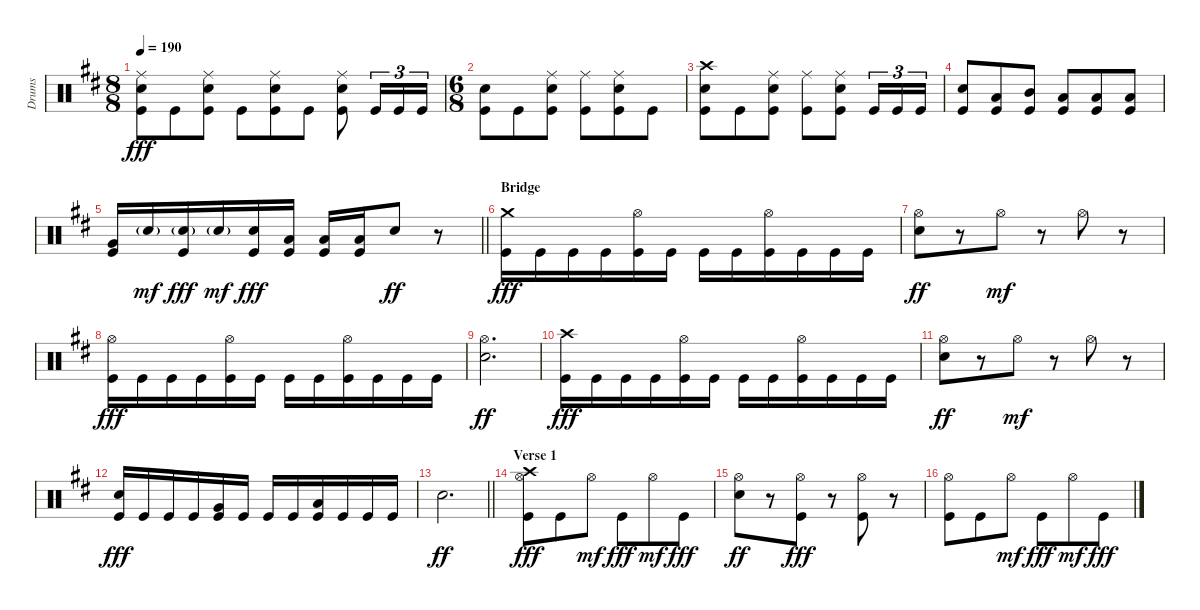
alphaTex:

\track ("Drums" "Drums") {instrument percussion}
\staff {score}
\articulation defaults
\ts (8 8)
\tempo 190
\clef neutral
\ks bminor
("Ride (middle)" "Snare (hit) 2" "Kick (hit)").8{dy fff} "Kick (hit)".8 ("Ride (middle)" "Snare (hit) 2" "Kick (hit)").8 "Kick (hit)".8 ("Ride (middle)" "Snare (hit) 2" "Kick (hit)").8 "Kick (hit)".8 ("Ride (middle)" "Snare (hit) 2" "Kick (hit)").8 "Kick (hit)".16{tu (3 2)} "Kick (hit)".16{tu (3 2)} "Kick (hit)".16{tu (3 2)} |
\ts (6 8)
("Snare (hit) 2" "Kick (hit)").8 "Kick (hit)".8 ("Ride (middle)" "Snare (hit) 2" "Kick (hit)").8 ("Ride (middle)" "Kick (hit)").8 ("Ride (middle)" "Snare (hit) 2" "Kick (hit)").8 "Kick (hit)".8 |
("Crash high (hit)" "Snare (hit) 2" "Kick (hit)").8 "Kick (hit)".8 ("Ride (middle)" "Snare (hit) 2" "Kick (hit)").8 ("Ride (middle)" "Kick (hit)").8 ("Ride (middle)" "Snare (hit) 2" "Kick (hit)").8 "Kick (hit)".16{tu (3 2)} "Kick (hit)".16{tu (3 2)} "Kick (hit)".16{tu (3 2)} |
("Snare (hit) 2" "Kick (hit)").8 ("Low Floor Tom (hit)" "Kick (hit)").8 ("Mid Tom (hit)" "Kick (hit)").8 ("Low Floor Tom (hit)" "Kick (hit)").8 ("Low Tom (hit)" "Kick (hit)").8 ("Low Floor Tom (hit)" "Kick (hit)").8 |
\barLineRight lightlight
("Very Low Tom (hit)" "Kick (hit)").16 "Snare (hit) 2"{g}.16{dy mf} ("Snare (hit) 2"{g} "Kick (hit)").16{dy fff} "Snare (hit) 2"{g}.16{dy mf} ("Snare (hit) 2" "Kick (hit)").16{dy fff} ("Low Floor Tom (hit)" "Kick (hit)").16 ("Low Floor Tom (hit)" "Kick (hit)").16 ("Low Floor Tom (hit)" "Kick (hit)").16 "Snare (hit) 2".8{dy ff} r.8 |
\section ("" "Bridge")
("Crash medium (hit)" "Kick (hit)").16{dy fff} "Kick (hit)".16 "Kick (hit)".16 "Kick (hit)".16 ("Hi-Hat (open)" "Kick (hit)").16 "Kick (hit)".16 "Kick (hit)".16 "Kick (hit)".16 ("Hi-Hat (open)" "Kick (hit)").16 "Kick (hit)".16 "Kick (hit)".16 "Kick (hit)".16 |
("Hi-Hat (open)" "Snare (hit) 2").8{dy ff} r.8 "Hi-Hat (open)".8{dy mf} r.8 "Hi-Hat (open)".8 r.8 |
("Hi-Hat (open)" "Kick (hit)").16{dy fff} "Kick (hit)".16 "Kick (hit)".16 "Kick (hit)".16 ("Hi-Hat (open)" "Kick (hit)").16 "Kick (hit)".16 "Kick (hit)".16 "Kick (hit)".16 ("Hi-Hat (open)" "Kick (hit)").16 "Kick (hit)".16 "Kick (hit)".16 "Kick (hit)".16 |
("Hi-Hat (open)" "Snare (hit) 2").2{d dy ff} |
("Crash high (hit)" "Kick (hit)").16{dy fff} "Kick (hit)".16 "Kick (hit)".16 "Kick (hit)".16 ("Hi-Hat (open)" "Kick (hit)").16 "Kick (hit)".16 "Kick (hit)".16 "Kick (hit)".16 ("Hi-Hat (open)" "Kick (hit)").16 "Kick (hit)".16 "Kick (hit)".16 "Kick (hit)".16 |
("Hi-Hat (open)" "Snare (hit) 2").8{dy ff} r.8 "Hi-Hat (open)".8{dy mf} r.8 "Hi-Hat (open)".8 r.8 |
("Snare (hit) 2" "Kick (hit)").16{dy fff} "Kick (hit)".16 "Kick (hit)".16 "Kick (hit)".16 ("Very Low Tom (hit)" "Kick (hit)").16 "Kick (hit)".16 "Kick (hit)".16 "Kick (hit)".16 ("Low Floor Tom (hit)" "Kick (hit)").16 "Kick (hit)".16 "Kick (hit)".16 "Kick (hit)".16 |
\barLineRight lightlight "Snare (hit) 2".2{d dy ff}
|
\section ("" "Verse 1")
("Crash high (hit)" "Hi-Hat (open)" "Kick (hit)").8{dy fff} "Kick (hit)".8 "Hi-Hat (open)".8{dy mf} "Kick (hit)".8{dy fff} "Hi-Hat (open)".8{dy mf} "Kick (hit)".8{dy fff} |
("Hi-Hat (open)" "Snare (hit) 2").8{dy ff} r.8 ("Hi-Hat (open)" "Kick (hit)").8{dy fff} r.8 ("Hi-Hat (open)" "Kick (hit)").8 r.8 |
("Hi-Hat (open)" "Kick (hit)").8 "Kick (hit)".8 "Hi-Hat (open)".8{dy mf} "Kick (hit)".8{dy fff} "Hi-Hat (open)".8{dy mf} "Kick (hit)".8{dy fff}
